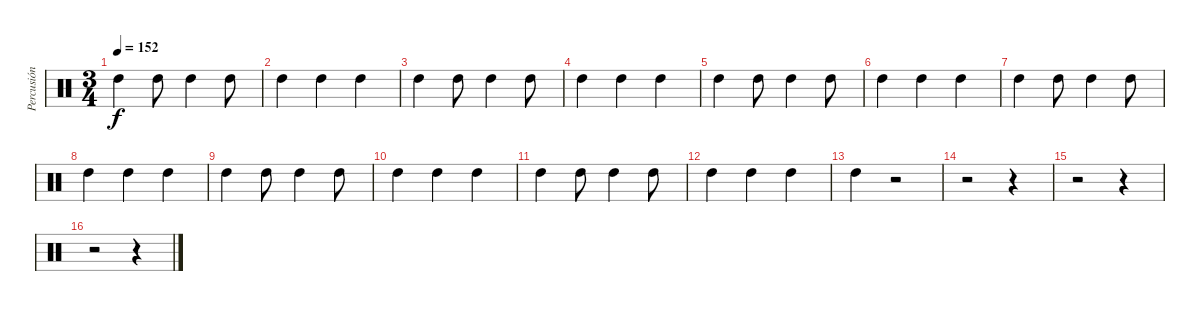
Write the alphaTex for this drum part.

\track ("Percusión" "Percusión") {instrument percussion}
\staff {score}
\articulation defaults
\ts (3 4)
\tempo 152
\clef neutral
\ks c "High Tom (hit)".4{dy f} "High Tom (hit)".8 "High Tom (hit)".4 "High Tom (hit)".8
|
"High Tom (hit)".4 "High Tom (hit)".4 "High Tom (hit)".4 |
"High Tom (hit)".4 "High Tom (hit)".8 "High Tom (hit)".4 "High Tom (hit)".8 |
"High Tom (hit)".4 "High Tom (hit)".4 "High Tom (hit)".4 |
"High Tom (hit)".4 "High Tom (hit)".8 "High Tom (hit)".4 "High Tom (hit)".8 |
"High Tom (hit)".4 "High Tom (hit)".4 "High Tom (hit)".4 |
"High Tom (hit)".4 "High Tom (hit)".8 "High Tom (hit)".4 "High Tom (hit)".8 |
"High Tom (hit)".4 "High Tom (hit)".4 "High Tom (hit)".4 |
"High Tom (hit)".4 "High Tom (hit)".8 "High Tom (hit)".4 "High Tom (hit)".8 |
"High Tom (hit)".4 "High Tom (hit)".4 "High Tom (hit)".4 |
"High Tom (hit)".4 "High Tom (hit)".8 "High Tom (hit)".4 "High Tom (hit)".8 |
"High Tom (hit)".4 "High Tom (hit)".4 "High Tom (hit)".4 |
"High Tom (hit)".4 r.2 |
r.2 r.4 |
r.2 r.4 |
r.2 r.4
